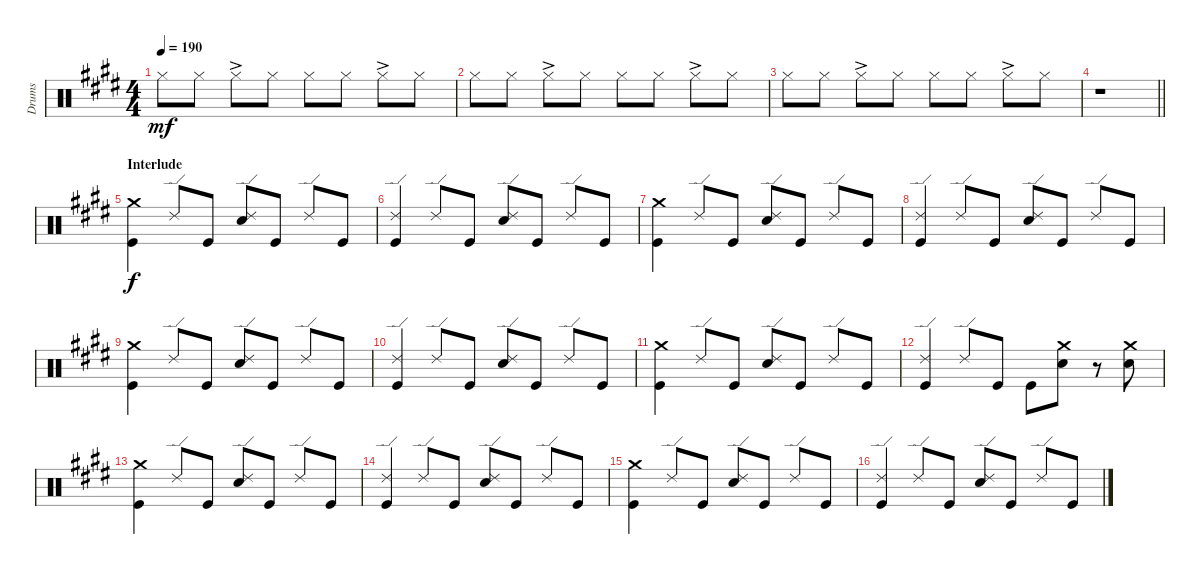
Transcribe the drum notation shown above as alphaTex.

\track ("Drums" "Drums") {instrument percussion}
\staff {score}
\articulation defaults
\ts (4 4)
\tempo 190
\clef neutral
\ks e "Hi-Hat (closed)".8{dy mf} "Hi-Hat (closed)".8 "Hi-Hat (closed)"{ac}.8 "Hi-Hat (closed)".8 "Hi-Hat (closed)".8 "Hi-Hat (closed)".8 "Hi-Hat (closed)"{ac}.8 "Hi-Hat (closed)".8
|
"Hi-Hat (closed)".8 "Hi-Hat (closed)".8 "Hi-Hat (closed)"{ac}.8 "Hi-Hat (closed)".8 "Hi-Hat (closed)".8 "Hi-Hat (closed)".8 "Hi-Hat (closed)"{ac}.8 "Hi-Hat (closed)".8 |
"Hi-Hat (closed)".8 "Hi-Hat (closed)".8 "Hi-Hat (closed)"{ac}.8 "Hi-Hat (closed)".8 "Hi-Hat (closed)".8 "Hi-Hat (closed)".8 "Hi-Hat (closed)"{ac}.8 "Hi-Hat (closed)".8 |
\barLineRight lightlight
r.1 |
\section ("" "Interlude")
("Kick (hit)" "Crash medium (hit)").4{dy f} "Ride (edge) 2".8 "Kick (hit)".8 ("Snare (hit) 2" "Ride (edge) 2").8 "Kick (hit)".8 "Ride (edge) 2".8 "Kick (hit)".8 |
("Kick (hit)" "Ride (edge) 2").4 "Ride (edge) 2".8 "Kick (hit)".8 ("Snare (hit) 2" "Ride (edge) 2").8 "Kick (hit)".8 "Ride (edge) 2".8 "Kick (hit)".8 |
("Kick (hit)" "Crash medium (hit)").4 "Ride (edge) 2".8 "Kick (hit)".8 ("Snare (hit) 2" "Ride (edge) 2").8 "Kick (hit)".8 "Ride (edge) 2".8 "Kick (hit)".8 |
("Kick (hit)" "Ride (edge) 2").4 "Ride (edge) 2".8 "Kick (hit)".8 ("Snare (hit) 2" "Ride (edge) 2").8 "Kick (hit)".8 "Ride (edge) 2".8 "Kick (hit)".8 |
("Kick (hit)" "Crash medium (hit)").4 "Ride (edge) 2".8 "Kick (hit)".8 ("Snare (hit) 2" "Ride (edge) 2").8 "Kick (hit)".8 "Ride (edge) 2".8 "Kick (hit)".8 |
("Kick (hit)" "Ride (edge) 2").4 "Ride (edge) 2".8 "Kick (hit)".8 ("Snare (hit) 2" "Ride (edge) 2").8 "Kick (hit)".8 "Ride (edge) 2".8 "Kick (hit)".8 |
("Kick (hit)" "Crash medium (hit)").4 "Ride (edge) 2".8 "Kick (hit)".8 ("Snare (hit) 2" "Ride (edge) 2").8 "Kick (hit)".8 "Ride (edge) 2".8 "Kick (hit)".8 |
("Kick (hit)" "Ride (edge) 2").4 "Ride (edge) 2".8 "Kick (hit)".8 "Kick (hit)".8 ("Snare (hit) 2" "Crash medium (hit)").8 r.8 ("Snare (hit) 2" "Crash medium (hit)").8 |
("Kick (hit)" "Crash medium (hit)").4 "Ride (edge) 2".8 "Kick (hit)".8 ("Snare (hit) 2" "Ride (edge) 2").8 "Kick (hit)".8 "Ride (edge) 2".8 "Kick (hit)".8 |
("Kick (hit)" "Ride (edge) 2").4 "Ride (edge) 2".8 "Kick (hit)".8 ("Snare (hit) 2" "Ride (edge) 2").8 "Kick (hit)".8 "Ride (edge) 2".8 "Kick (hit)".8 |
("Kick (hit)" "Crash medium (hit)").4 "Ride (edge) 2".8 "Kick (hit)".8 ("Snare (hit) 2" "Ride (edge) 2").8 "Kick (hit)".8 "Ride (edge) 2".8 "Kick (hit)".8 |
("Kick (hit)" "Ride (edge) 2").4 "Ride (edge) 2".8 "Kick (hit)".8 ("Snare (hit) 2" "Ride (edge) 2").8 "Kick (hit)".8 "Ride (edge) 2".8 "Kick (hit)".8
